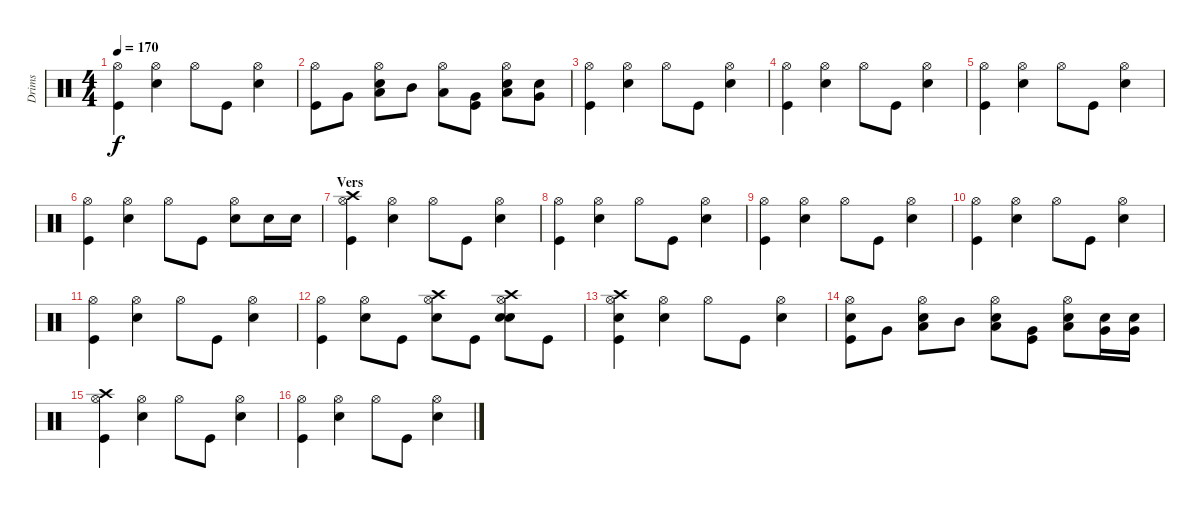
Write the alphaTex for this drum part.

\track ("Drims" "Drims") {instrument percussion}
\staff {score}
\articulation defaults
\ts (4 4)
\tempo 170
\clef neutral
\ks c
("Hi-Hat (open)" "Kick (hit)").4{dy f} ("Hi-Hat (open)" "Electric Snare (hit)").4 "Hi-Hat (open)".8 "Kick (hit)".8 ("Hi-Hat (open)" "Electric Snare (hit)").4 |
("Hi-Hat (open)" "Kick (hit)").8 "Very Low Tom (hit)".8 ("Hi-Hat (open)" "Electric Snare (hit)" "Low Tom (hit)").8 "Mid Tom (hit)".8 ("Hi-Hat (open)" "Low Tom (hit)").8 ("Very Low Tom (hit)" "Kick (hit)").8 ("Hi-Hat (open)" "Electric Snare (hit)" "Low Floor Tom (hit)").8 ("Electric Snare (hit)" "Very Low Tom (hit)").8 |
("Hi-Hat (open)" "Kick (hit)").4 ("Hi-Hat (open)" "Electric Snare (hit)").4 "Hi-Hat (open)".8 "Kick (hit)".8 ("Hi-Hat (open)" "Electric Snare (hit)").4 |
("Hi-Hat (open)" "Kick (hit)").4 ("Hi-Hat (open)" "Electric Snare (hit)").4 "Hi-Hat (open)".8 "Kick (hit)".8 ("Hi-Hat (open)" "Electric Snare (hit)").4 |
("Hi-Hat (open)" "Kick (hit)").4 ("Hi-Hat (open)" "Electric Snare (hit)").4 "Hi-Hat (open)".8 "Kick (hit)".8 ("Hi-Hat (open)" "Electric Snare (hit)").4 |
("Hi-Hat (open)" "Kick (hit)").4 ("Hi-Hat (open)" "Electric Snare (hit)").4 "Hi-Hat (open)".8 "Kick (hit)".8 ("Hi-Hat (open)" "Electric Snare (hit)").8 "Electric Snare (hit)".16 "Electric Snare (hit)".16 |
\section ("" "Vers")
("Hi-Hat (open)" "Crash high (hit)" "Kick (hit)").4 ("Hi-Hat (open)" "Electric Snare (hit)").4 "Hi-Hat (open)".8 "Kick (hit)".8 ("Hi-Hat (open)" "Electric Snare (hit)").4 |
("Hi-Hat (open)" "Kick (hit)").4 ("Hi-Hat (open)" "Electric Snare (hit)").4 "Hi-Hat (open)".8 "Kick (hit)".8 ("Hi-Hat (open)" "Electric Snare (hit)").4 |
("Hi-Hat (open)" "Kick (hit)").4 ("Hi-Hat (open)" "Electric Snare (hit)").4 "Hi-Hat (open)".8 "Kick (hit)".8 ("Hi-Hat (open)" "Electric Snare (hit)").4 |
("Hi-Hat (open)" "Kick (hit)").4 ("Hi-Hat (open)" "Electric Snare (hit)").4 "Hi-Hat (open)".8 "Kick (hit)".8 ("Hi-Hat (open)" "Electric Snare (hit)").4 |
("Hi-Hat (open)" "Kick (hit)").4 ("Hi-Hat (open)" "Electric Snare (hit)").4 "Hi-Hat (open)".8 "Kick (hit)".8 ("Hi-Hat (open)" "Electric Snare (hit)").4 |
("Hi-Hat (open)" "Kick (hit)").4 ("Hi-Hat (open)" "Electric Snare (hit)").8 "Kick (hit)".8 ("Hi-Hat (open)" "Crash high (hit)" "Electric Snare (hit)").8 "Kick (hit)".8 ("Hi-Hat (open)" "Crash high (hit)" "Electric Snare (hit)" "Electric Snare (hit)").8 "Kick (hit)".8 |
("Hi-Hat (open)" "Crash high (hit)" "Electric Snare (hit)" "Kick (hit)").4 ("Hi-Hat (open)" "Electric Snare (hit)").4 "Hi-Hat (open)".8 "Kick (hit)".8 ("Hi-Hat (open)" "Electric Snare (hit)").4 |
("Hi-Hat (open)" "Electric Snare (hit)" "Kick (hit)").8 "Very Low Tom (hit)".8 ("Hi-Hat (open)" "Electric Snare (hit)" "Low Tom (hit)").8 "Mid Tom (hit)".8 ("Hi-Hat (open)" "Electric Snare (hit)" "Low Tom (hit)").8 ("Very Low Tom (hit)" "Kick (hit)").8 ("Hi-Hat (open)" "Electric Snare (hit)" "Low Floor Tom (hit)").8 ("Electric Snare (hit)" "Very Low Tom (hit)").16 ("Electric Snare (hit)" "Very Low Tom (hit)").16 |
("Hi-Hat (open)" "Crash high (hit)" "Kick (hit)").4 ("Hi-Hat (open)" "Electric Snare (hit)").4 "Hi-Hat (open)".8 "Kick (hit)".8 ("Hi-Hat (open)" "Electric Snare (hit)").4 |
("Hi-Hat (open)" "Kick (hit)").4 ("Hi-Hat (open)" "Electric Snare (hit)").4 "Hi-Hat (open)".8 "Kick (hit)".8 ("Hi-Hat (open)" "Electric Snare (hit)").4
